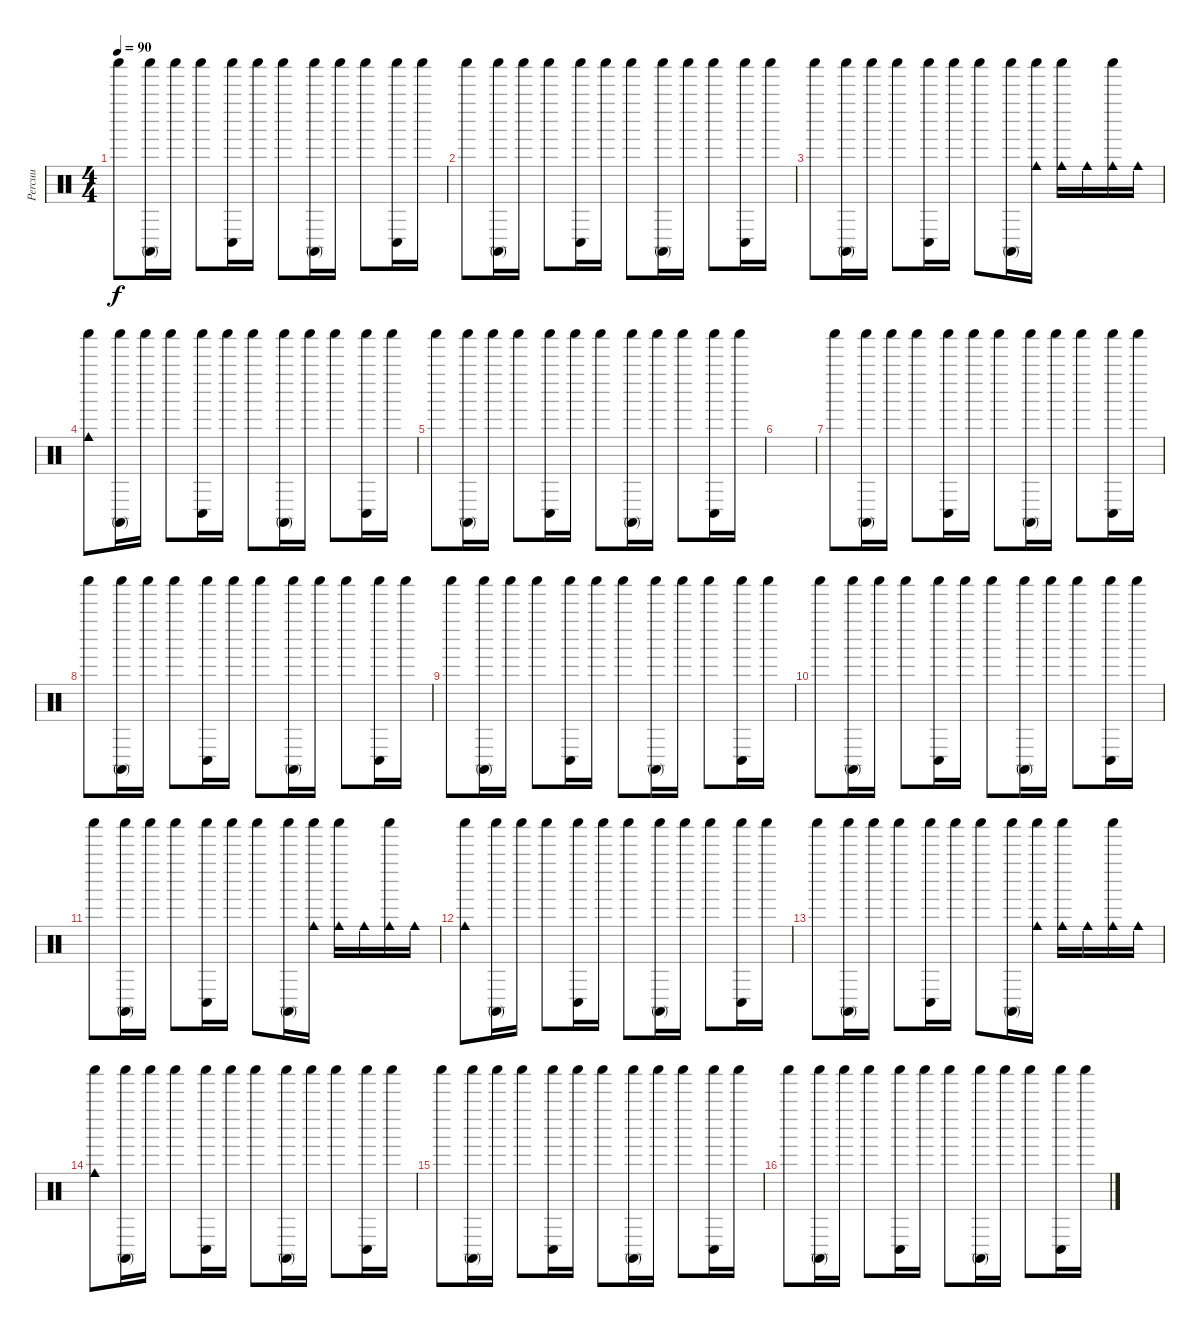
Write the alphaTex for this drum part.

\track ("Percuu" "Percuu") {instrument percussion}
\staff {score}
\articulation defaults
\ts (4 4)
\tempo 90
\clef neutral
\ks c "Shaker (hit)".8{dy f}
("Conga high (mute)" "Shaker (hit)").16 "Shaker (hit)".16 "Shaker (hit)".8 ("Conga low (hit)" "Shaker (hit)").16 "Shaker (hit)".16 "Shaker (hit)".8 ("Conga high (mute)" "Shaker (hit)").16 "Shaker (hit)".16 "Shaker (hit)".8 ("Conga low (hit)" "Shaker (hit)").16 "Shaker (hit)".16 |
"Shaker (hit)".8 ("Conga high (mute)" "Shaker (hit)").16 "Shaker (hit)".16 "Shaker (hit)".8 ("Conga low (hit)" "Shaker (hit)").16 "Shaker (hit)".16 "Shaker (hit)".8 ("Conga high (mute)" "Shaker (hit)").16 "Shaker (hit)".16 "Shaker (hit)".8 ("Conga low (hit)" "Shaker (hit)").16 "Shaker (hit)".16 |
"Shaker (hit)".8 ("Conga high (mute)" "Shaker (hit)").16 "Shaker (hit)".16 "Shaker (hit)".8 ("Conga low (hit)" "Shaker (hit)").16 "Shaker (hit)".16 "Shaker (hit)".8 ("Conga high (mute)" "Shaker (hit)").16 ("Cowbell medium (hit)" "Shaker (hit)").16 ("Cowbell medium (hit)" "Shaker (hit)").16 "Cowbell medium (hit)".16 ("Cowbell medium (hit)" "Shaker (hit)").16 "Cowbell medium (hit)".16 |
("Cowbell medium (hit)" "Shaker (hit)").8 ("Conga high (mute)" "Shaker (hit)").16 "Shaker (hit)".16 "Shaker (hit)".8 ("Conga low (hit)" "Shaker (hit)").16 "Shaker (hit)".16 "Shaker (hit)".8 ("Conga high (mute)" "Shaker (hit)").16 "Shaker (hit)".16 "Shaker (hit)".8 ("Conga low (hit)" "Shaker (hit)").16 "Shaker (hit)".16 |
"Shaker (hit)".8 ("Conga high (mute)" "Shaker (hit)").16 "Shaker (hit)".16 "Shaker (hit)".8 ("Conga low (hit)" "Shaker (hit)").16 "Shaker (hit)".16 "Shaker (hit)".8 ("Conga high (mute)" "Shaker (hit)").16 "Shaker (hit)".16 "Shaker (hit)".8 ("Conga low (hit)" "Shaker (hit)").16 "Shaker (hit)".16 |
|
"Shaker (hit)".8 ("Conga high (mute)" "Shaker (hit)").16 "Shaker (hit)".16 "Shaker (hit)".8 ("Conga low (hit)" "Shaker (hit)").16 "Shaker (hit)".16 "Shaker (hit)".8 ("Conga high (mute)" "Shaker (hit)").16 "Shaker (hit)".16 "Shaker (hit)".8 ("Conga low (hit)" "Shaker (hit)").16 "Shaker (hit)".16 |
"Shaker (hit)".8 ("Conga high (mute)" "Shaker (hit)").16 "Shaker (hit)".16 "Shaker (hit)".8 ("Conga low (hit)" "Shaker (hit)").16 "Shaker (hit)".16 "Shaker (hit)".8 ("Conga high (mute)" "Shaker (hit)").16 "Shaker (hit)".16 "Shaker (hit)".8 ("Conga low (hit)" "Shaker (hit)").16 "Shaker (hit)".16 |
"Shaker (hit)".8 ("Conga high (mute)" "Shaker (hit)").16 "Shaker (hit)".16 "Shaker (hit)".8 ("Conga low (hit)" "Shaker (hit)").16 "Shaker (hit)".16 "Shaker (hit)".8 ("Conga high (mute)" "Shaker (hit)").16 "Shaker (hit)".16 "Shaker (hit)".8 ("Conga low (hit)" "Shaker (hit)").16 "Shaker (hit)".16 |
"Shaker (hit)".8 ("Conga high (mute)" "Shaker (hit)").16 "Shaker (hit)".16 "Shaker (hit)".8 ("Conga low (hit)" "Shaker (hit)").16 "Shaker (hit)".16 "Shaker (hit)".8 ("Conga high (mute)" "Shaker (hit)").16 "Shaker (hit)".16 "Shaker (hit)".8 ("Conga low (hit)" "Shaker (hit)").16 "Shaker (hit)".16 |
"Shaker (hit)".8 ("Conga high (mute)" "Shaker (hit)").16 "Shaker (hit)".16 "Shaker (hit)".8 ("Conga low (hit)" "Shaker (hit)").16 "Shaker (hit)".16 "Shaker (hit)".8 ("Conga high (mute)" "Shaker (hit)").16 ("Cowbell medium (hit)" "Shaker (hit)").16 ("Cowbell medium (hit)" "Shaker (hit)").16 "Cowbell medium (hit)".16 ("Cowbell medium (hit)" "Shaker (hit)").16 "Cowbell medium (hit)".16 |
("Cowbell medium (hit)" "Shaker (hit)").8 ("Conga high (mute)" "Shaker (hit)").16 "Shaker (hit)".16 "Shaker (hit)".8 ("Conga low (hit)" "Shaker (hit)").16 "Shaker (hit)".16 "Shaker (hit)".8 ("Conga high (mute)" "Shaker (hit)").16 "Shaker (hit)".16 "Shaker (hit)".8 ("Conga low (hit)" "Shaker (hit)").16 "Shaker (hit)".16 |
"Shaker (hit)".8 ("Conga high (mute)" "Shaker (hit)").16 "Shaker (hit)".16 "Shaker (hit)".8 ("Conga low (hit)" "Shaker (hit)").16 "Shaker (hit)".16 "Shaker (hit)".8 ("Conga high (mute)" "Shaker (hit)").16 ("Cowbell medium (hit)" "Shaker (hit)").16 ("Cowbell medium (hit)" "Shaker (hit)").16 "Cowbell medium (hit)".16 ("Cowbell medium (hit)" "Shaker (hit)").16 "Cowbell medium (hit)".16 |
("Cowbell medium (hit)" "Shaker (hit)").8 ("Conga high (mute)" "Shaker (hit)").16 "Shaker (hit)".16 "Shaker (hit)".8 ("Conga low (hit)" "Shaker (hit)").16 "Shaker (hit)".16 "Shaker (hit)".8 ("Conga high (mute)" "Shaker (hit)").16 "Shaker (hit)".16 "Shaker (hit)".8 ("Conga low (hit)" "Shaker (hit)").16 "Shaker (hit)".16 |
"Shaker (hit)".8 ("Conga high (mute)" "Shaker (hit)").16 "Shaker (hit)".16 "Shaker (hit)".8 ("Conga low (hit)" "Shaker (hit)").16 "Shaker (hit)".16 "Shaker (hit)".8 ("Conga high (mute)" "Shaker (hit)").16 "Shaker (hit)".16 "Shaker (hit)".8 ("Conga low (hit)" "Shaker (hit)").16 "Shaker (hit)".16 |
"Shaker (hit)".8 ("Conga high (mute)" "Shaker (hit)").16 "Shaker (hit)".16 "Shaker (hit)".8 ("Conga low (hit)" "Shaker (hit)").16 "Shaker (hit)".16 "Shaker (hit)".8 ("Conga high (mute)" "Shaker (hit)").16 "Shaker (hit)".16 "Shaker (hit)".8 ("Conga low (hit)" "Shaker (hit)").16 "Shaker (hit)".16
